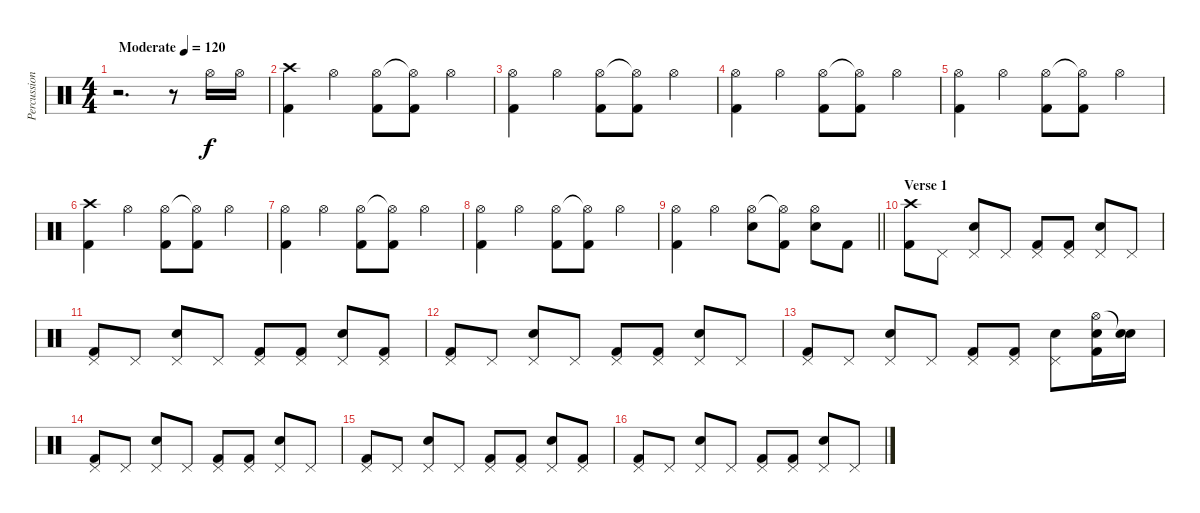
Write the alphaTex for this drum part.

\track ("Percussion" "Percussion") {instrument percussion}
\staff {score}
\articulation defaults
\ts (4 4)
\tempo (120 "Moderate")
\clef neutral
\ks c
r.2{d dy f} r.8 "Hi-Hat (open)".16 "Hi-Hat (open)".16 |
("Crash high (hit)" "Kick (hit) 2").4 "Hi-Hat (open)".4 ("Hi-Hat (open)" "Kick (hit) 2").8 ("Hi-Hat (open)"{t} "Kick (hit) 2").8 "Hi-Hat (open)".4 |
("Hi-Hat (open)" "Kick (hit) 2").4 "Hi-Hat (open)".4 ("Hi-Hat (open)" "Kick (hit) 2").8 ("Hi-Hat (open)"{t} "Kick (hit) 2").8 "Hi-Hat (open)".4 |
("Hi-Hat (open)" "Kick (hit) 2").4 "Hi-Hat (open)".4 ("Hi-Hat (open)" "Kick (hit) 2").8 ("Hi-Hat (open)"{t} "Kick (hit) 2").8 "Hi-Hat (open)".4 |
("Hi-Hat (open)" "Kick (hit) 2").4 "Hi-Hat (open)".4 ("Hi-Hat (open)" "Kick (hit) 2").8 ("Hi-Hat (open)"{t} "Kick (hit) 2").8 "Hi-Hat (open)".4 |
("Crash high (hit)" "Kick (hit) 2").4 "Hi-Hat (open)".4 ("Hi-Hat (open)" "Kick (hit) 2").8 ("Hi-Hat (open)"{t} "Kick (hit) 2").8 "Hi-Hat (open)".4 |
("Hi-Hat (open)" "Kick (hit) 2").4 "Hi-Hat (open)".4 ("Hi-Hat (open)" "Kick (hit) 2").8 ("Hi-Hat (open)"{t} "Kick (hit) 2").8 "Hi-Hat (open)".4 |
("Hi-Hat (open)" "Kick (hit) 2").4 "Hi-Hat (open)".4 ("Hi-Hat (open)" "Kick (hit) 2").8 ("Hi-Hat (open)"{t} "Kick (hit) 2").8 "Hi-Hat (open)".4 |
\barLineRight lightlight
("Hi-Hat (open)" "Kick (hit) 2").4 "Hi-Hat (open)".4 ("Hi-Hat (open)" "Snare (hit) 2").8 ("Hi-Hat (open)"{t} "Kick (hit) 2").8 ("Hi-Hat (open)" "Snare (hit) 2").8 "Kick (hit) 2".8 |
\section ("" "Verse 1")
("Crash high (hit)" "Kick (hit) 2").8 "Pedal Hi-Hat (hit)".8 ("Pedal Hi-Hat (hit)" "Snare (hit) 2").8 "Pedal Hi-Hat (hit)".8 ("Pedal Hi-Hat (hit)" "Kick (hit) 2").8 ("Pedal Hi-Hat (hit)" "Kick (hit) 2").8 ("Pedal Hi-Hat (hit)" "Snare (hit) 2").8 "Pedal Hi-Hat (hit)".8 |
("Pedal Hi-Hat (hit)" "Kick (hit) 2").8 "Pedal Hi-Hat (hit)".8 ("Pedal Hi-Hat (hit)" "Snare (hit) 2").8 "Pedal Hi-Hat (hit)".8 ("Pedal Hi-Hat (hit)" "Kick (hit) 2").8 ("Pedal Hi-Hat (hit)" "Kick (hit) 2").8 ("Pedal Hi-Hat (hit)" "Snare (hit) 2").8 ("Pedal Hi-Hat (hit)" "Kick (hit) 2").8 |
("Pedal Hi-Hat (hit)" "Kick (hit) 2").8 "Pedal Hi-Hat (hit)".8 ("Pedal Hi-Hat (hit)" "Snare (hit) 2").8 "Pedal Hi-Hat (hit)".8 ("Pedal Hi-Hat (hit)" "Kick (hit) 2").8 ("Pedal Hi-Hat (hit)" "Kick (hit) 2").8 ("Pedal Hi-Hat (hit)" "Snare (hit) 2").8 "Pedal Hi-Hat (hit)".8 |
("Pedal Hi-Hat (hit)" "Kick (hit) 2").8 "Pedal Hi-Hat (hit)".8 ("Pedal Hi-Hat (hit)" "Snare (hit) 2").8 "Pedal Hi-Hat (hit)".8 ("Pedal Hi-Hat (hit)" "Kick (hit) 2").8 ("Pedal Hi-Hat (hit)" "Kick (hit) 2").8 ("Pedal Hi-Hat (hit)" "Snare (hit) 2").8 ("Hi-Hat (open)" "Snare (hit) 2" "Kick (hit) 2").16 ("Snare (hit)"{t} "Snare (hit) 2").16 |
("Pedal Hi-Hat (hit)" "Kick (hit) 2").8 "Pedal Hi-Hat (hit)".8 ("Pedal Hi-Hat (hit)" "Snare (hit) 2").8 "Pedal Hi-Hat (hit)".8 ("Pedal Hi-Hat (hit)" "Kick (hit) 2").8 ("Pedal Hi-Hat (hit)" "Kick (hit) 2").8 ("Pedal Hi-Hat (hit)" "Snare (hit) 2").8 "Pedal Hi-Hat (hit)".8 |
("Pedal Hi-Hat (hit)" "Kick (hit) 2").8 "Pedal Hi-Hat (hit)".8 ("Pedal Hi-Hat (hit)" "Snare (hit) 2").8 "Pedal Hi-Hat (hit)".8 ("Pedal Hi-Hat (hit)" "Kick (hit) 2").8 ("Pedal Hi-Hat (hit)" "Kick (hit) 2").8 ("Pedal Hi-Hat (hit)" "Snare (hit) 2").8 ("Pedal Hi-Hat (hit)" "Kick (hit) 2").8 |
("Pedal Hi-Hat (hit)" "Kick (hit) 2").8 "Pedal Hi-Hat (hit)".8 ("Pedal Hi-Hat (hit)" "Snare (hit) 2").8 "Pedal Hi-Hat (hit)".8 ("Pedal Hi-Hat (hit)" "Kick (hit) 2").8 ("Pedal Hi-Hat (hit)" "Kick (hit) 2").8 ("Pedal Hi-Hat (hit)" "Snare (hit) 2").8 "Pedal Hi-Hat (hit)".8
